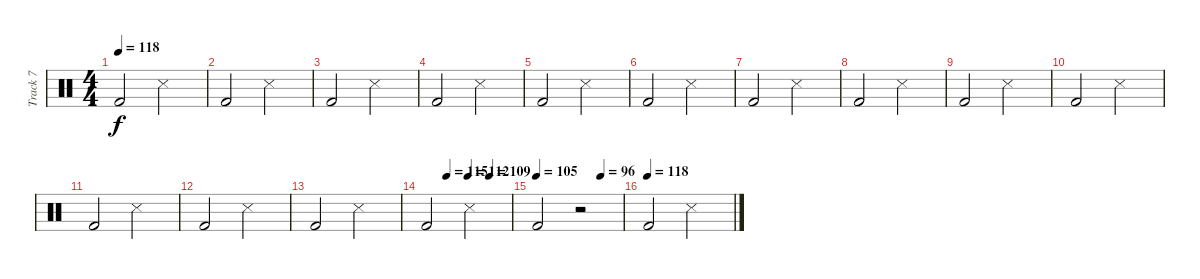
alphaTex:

\track ("Track 7" "Track 7") {instrument percussion}
\staff {score}
\articulation defaults
\ts (4 4)
\tempo 118
\clef neutral
\ks c "Kick (hit) 2".2{dy f} "Snare (side stick) 3".2
|
"Kick (hit) 2".2 "Snare (side stick) 3".2 |
"Kick (hit) 2".2 "Snare (side stick) 3".2 |
"Kick (hit) 2".2 "Snare (side stick) 3".2 |
"Kick (hit) 2".2 "Snare (side stick) 3".2 |
"Kick (hit) 2".2 "Snare (side stick) 3".2 |
"Kick (hit) 2".2 "Snare (side stick) 3".2 |
"Kick (hit) 2".2 "Snare (side stick) 3".2 |
"Kick (hit) 2".2 "Snare (side stick) 3".2 |
"Kick (hit) 2".2 "Snare (side stick) 3".2 |
"Kick (hit) 2".2 "Snare (side stick) 3".2 |
"Kick (hit) 2".2 "Snare (side stick) 3".2 |
"Kick (hit) 2".2 "Snare (side stick) 3".2 |
\tempo (115 0.25)
\tempo (112 0.5)
\tempo (109 0.75)
"Kick (hit) 2".2 "Snare (side stick) 3".2 |
\tempo 105
\tempo (96 0.75)
"Kick (hit) 2".2 r.2 |
\tempo (118)
"Kick (hit) 2".2 "Snare (side stick) 3".2
